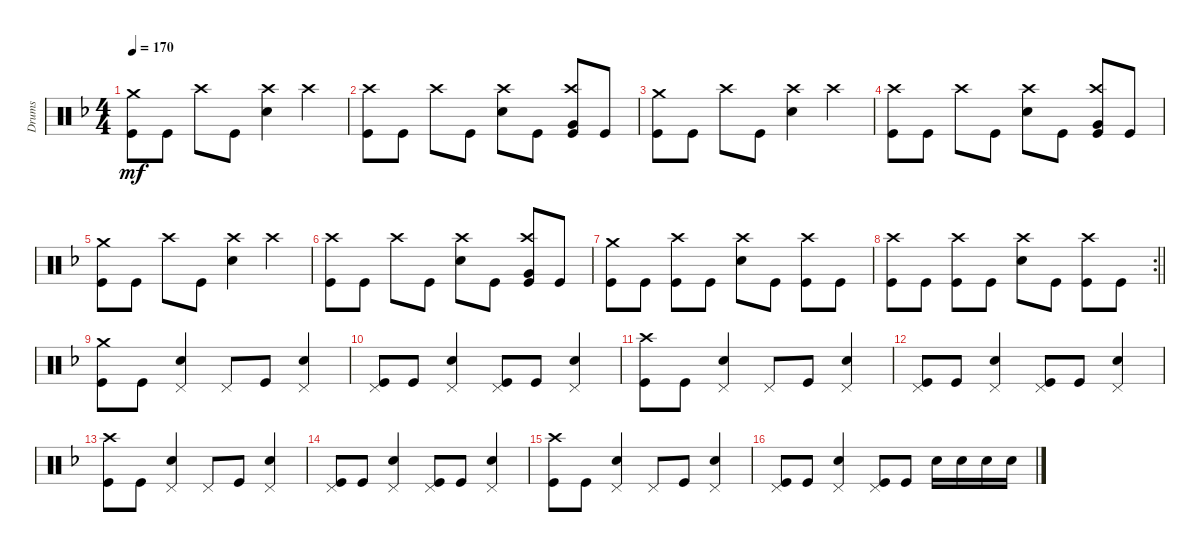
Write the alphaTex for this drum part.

\track ("Drums" "Drums") {instrument percussion}
\staff {score}
\articulation defaults
\ts (4 4)
\tempo 170
\clef neutral
\ks f
("Kick (hit)" "Crash medium (hit)").8{dy mf} "Kick (hit)".8 "Crash high (hit)".8 "Kick (hit)".8 ("Snare (hit) 2" "Crash high (hit)").4 "Crash high (hit)".4 |
("Kick (hit)" "Crash high (hit)").8 "Kick (hit)".8 "Crash high (hit)".8 "Kick (hit)".8 ("Snare (hit) 2" "Crash high (hit)").8 "Kick (hit)".8 ("Very Low Tom (hit)" "Kick (hit)" "Crash high (hit)").8 "Kick (hit)".8 |
("Kick (hit)" "Crash medium (hit)").8 "Kick (hit)".8 "Crash high (hit)".8 "Kick (hit)".8 ("Snare (hit) 2" "Crash high (hit)").4 "Crash high (hit)".4 |
("Kick (hit)" "Crash high (hit)").8 "Kick (hit)".8 "Crash high (hit)".8 "Kick (hit)".8 ("Snare (hit) 2" "Crash high (hit)").8 "Kick (hit)".8 ("Very Low Tom (hit)" "Kick (hit)" "Crash high (hit)").8 "Kick (hit)".8 |
("Kick (hit)" "Crash medium (hit)").8 "Kick (hit)".8 "Crash high (hit)".8 "Kick (hit)".8 ("Snare (hit) 2" "Crash high (hit)").4 "Crash high (hit)".4 |
("Kick (hit)" "Crash high (hit)").8 "Kick (hit)".8 "Crash high (hit)".8 "Kick (hit)".8 ("Snare (hit) 2" "Crash high (hit)").8 "Kick (hit)".8 ("Very Low Tom (hit)" "Kick (hit)" "Crash high (hit)").8 "Kick (hit)".8 |
("Kick (hit)" "Crash medium (hit)").8 "Kick (hit)".8 ("Kick (hit)" "Crash high (hit)").8 "Kick (hit)".8 ("Snare (hit) 2" "Crash high (hit)").8 "Kick (hit)".8 ("Kick (hit)" "Crash high (hit)").8 "Kick (hit)".8 |
\rc 2
\barLineRight lightlight
("Kick (hit)" "Crash high (hit)").8 "Kick (hit)".8 ("Kick (hit)" "Crash high (hit)").8 "Kick (hit)".8 ("Snare (hit) 2" "Crash high (hit)").8 "Kick (hit)".8 ("Kick (hit)" "Crash high (hit)").8 "Kick (hit)".8 |
("Kick (hit)" "Crash medium (hit)").8 "Kick (hit)".8 ("Snare (hit) 2" "Pedal Hi-Hat (hit)").4 "Pedal Hi-Hat (hit)".8 "Kick (hit)".8 ("Snare (hit) 2" "Pedal Hi-Hat (hit)").4 |
("Kick (hit)" "Pedal Hi-Hat (hit)").8 "Kick (hit)".8 ("Snare (hit) 2" "Pedal Hi-Hat (hit)").4 ("Kick (hit)" "Pedal Hi-Hat (hit)").8 "Kick (hit)".8 ("Snare (hit) 2" "Pedal Hi-Hat (hit)").4 |
("Kick (hit)" "Crash high (hit)").8 "Kick (hit)".8 ("Snare (hit) 2" "Pedal Hi-Hat (hit)").4 "Pedal Hi-Hat (hit)".8 "Kick (hit)".8 ("Snare (hit) 2" "Pedal Hi-Hat (hit)").4 |
("Kick (hit)" "Pedal Hi-Hat (hit)").8 "Kick (hit)".8 ("Snare (hit) 2" "Pedal Hi-Hat (hit)").4 ("Kick (hit)" "Pedal Hi-Hat (hit)").8 "Kick (hit)".8 ("Snare (hit) 2" "Pedal Hi-Hat (hit)").4 |
("Kick (hit)" "Crash high (hit)").8 "Kick (hit)".8 ("Snare (hit) 2" "Pedal Hi-Hat (hit)").4 "Pedal Hi-Hat (hit)".8 "Kick (hit)".8 ("Snare (hit) 2" "Pedal Hi-Hat (hit)").4 |
("Kick (hit)" "Pedal Hi-Hat (hit)").8 "Kick (hit)".8 ("Snare (hit) 2" "Pedal Hi-Hat (hit)").4 ("Kick (hit)" "Pedal Hi-Hat (hit)").8 "Kick (hit)".8 ("Snare (hit) 2" "Pedal Hi-Hat (hit)").4 |
("Kick (hit)" "Crash high (hit)").8 "Kick (hit)".8 ("Snare (hit) 2" "Pedal Hi-Hat (hit)").4 "Pedal Hi-Hat (hit)".8 "Kick (hit)".8 ("Snare (hit) 2" "Pedal Hi-Hat (hit)").4 |
("Kick (hit)" "Pedal Hi-Hat (hit)").8 "Kick (hit)".8 ("Snare (hit) 2" "Pedal Hi-Hat (hit)").4 ("Kick (hit)" "Pedal Hi-Hat (hit)").8 "Kick (hit)".8 "Snare (hit) 2".16 "Snare (hit) 2".16 "Snare (hit) 2".16 "Snare (hit) 2".16
